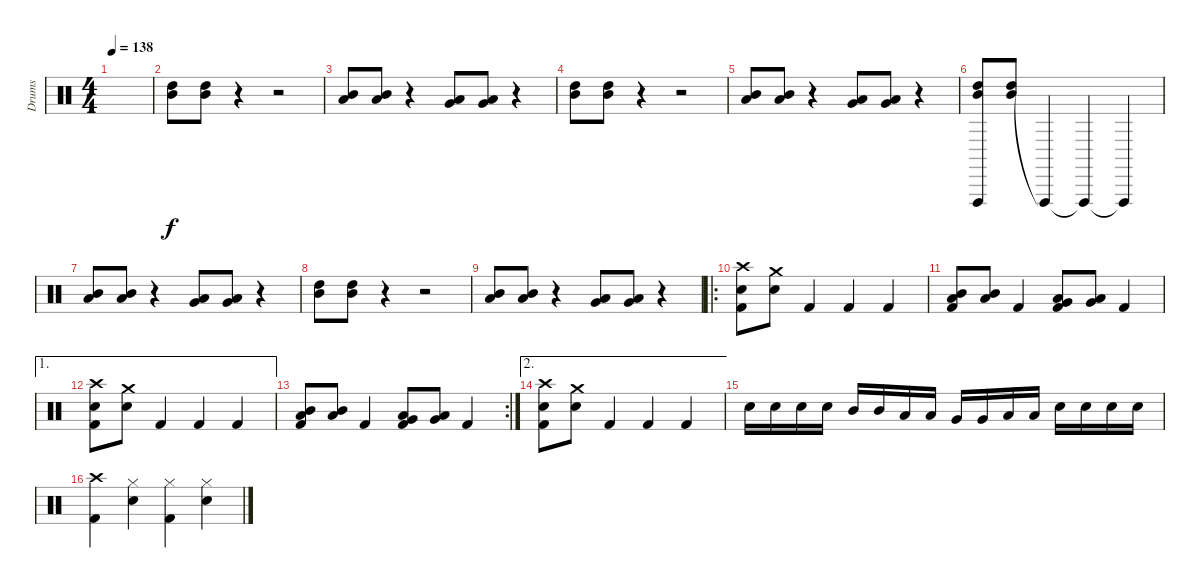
\track ("Drums" "Drums") {instrument percussion}
\staff {score}
\articulation defaults
\ts (4 4)
\tempo 138
\clef neutral
\ks c
|
("High Tom (hit)" "Mid Tom (hit)").8 ("High Tom (hit)" "Mid Tom (hit)").8 r.4 r.2 |
("Mid Tom (hit)" "Low Tom (hit)").8 ("Mid Tom (hit)" "Low Tom (hit)").8 r.4 ("Low Tom (hit)" "Very Low Tom (hit)").8 ("Low Tom (hit)" "Very Low Tom (hit)").8 r.4 |
("High Tom (hit)" "Mid Tom (hit)").8 ("High Tom (hit)" "Mid Tom (hit)").8 r.4 r.2 |
("Mid Tom (hit)" "Low Tom (hit)").8 ("Mid Tom (hit)" "Low Tom (hit)").8 r.4 ("Low Tom (hit)" "Very Low Tom (hit)").8 ("Low Tom (hit)" "Very Low Tom (hit)").8 r.4 |
("Vibraslap (hit)" "High Tom (hit)" "Mid Tom (hit)").8 ("High Tom (hit)" "Mid Tom (hit)").8 "Vibraslap (hit)"{t}.4 "Vibraslap (hit)"{t}.4 "Vibraslap (hit)"{t}.4 |
("Mid Tom (hit)" "Low Tom (hit)").8 ("Mid Tom (hit)" "Low Tom (hit)").8 r.4 ("Low Tom (hit)" "Very Low Tom (hit)").8 ("Low Tom (hit)" "Very Low Tom (hit)").8 r.4 |
("High Tom (hit)" "Mid Tom (hit)").8 ("High Tom (hit)" "Mid Tom (hit)").8 r.4 r.2 |
("Mid Tom (hit)" "Low Tom (hit)").8 ("Mid Tom (hit)" "Low Tom (hit)").8 r.4 ("Low Tom (hit)" "Very Low Tom (hit)").8 ("Low Tom (hit)" "Very Low Tom (hit)").8 r.4 |
\ro
("Crash high (hit)" "Snare (hit) 2" "Kick (hit) 2").8 ("Crash medium (hit)" "Snare (hit) 2").8 "Kick (hit) 2".4 "Kick (hit) 2".4 "Kick (hit) 2".4 |
("Mid Tom (hit)" "Low Tom (hit)" "Kick (hit) 2").8 ("Mid Tom (hit)" "Low Tom (hit)").8 "Kick (hit) 2".4 ("Low Tom (hit)" "Very Low Tom (hit)" "Kick (hit) 2").8 ("Low Tom (hit)" "Very Low Tom (hit)").8 "Kick (hit) 2".4 |
\ae 1
("Crash high (hit)" "Snare (hit) 2" "Kick (hit) 2").8 ("Crash medium (hit)" "Snare (hit) 2").8 "Kick (hit) 2".4 "Kick (hit) 2".4 "Kick (hit) 2".4 |
\rc 2
("Mid Tom (hit)" "Low Tom (hit)" "Kick (hit) 2").8 ("Mid Tom (hit)" "Low Tom (hit)").8 "Kick (hit) 2".4 ("Low Tom (hit)" "Very Low Tom (hit)" "Kick (hit) 2").8 ("Low Tom (hit)" "Very Low Tom (hit)").8 "Kick (hit) 2".4 |
\ae 2
("Crash high (hit)" "Snare (hit) 2" "Kick (hit) 2").8 ("Crash medium (hit)" "Snare (hit) 2").8 "Kick (hit) 2".4 "Kick (hit) 2".4 "Kick (hit) 2".4 |
"Snare (hit) 2".16 "Snare (hit) 2".16 "Snare (hit) 2".16 "Snare (hit) 2".16 "Mid Tom (hit)".16 "Mid Tom (hit)".16 "Low Tom (hit)".16 "Low Tom (hit)".16 "Very Low Tom (hit)".16 "Very Low Tom (hit)".16 "Low Floor Tom (hit)".16 "Low Floor Tom (hit)".16 "Snare (hit) 2".16 "Snare (hit) 2".16 "Snare (hit) 2".16 "Snare (hit) 2".16 |
("Crash high (hit)" "Kick (hit) 2").4 ("Snare (hit) 2" "Hi-Hat (closed)").4 ("Hi-Hat (closed)" "Kick (hit) 2").4 ("Snare (hit) 2" "Hi-Hat (closed)").4
